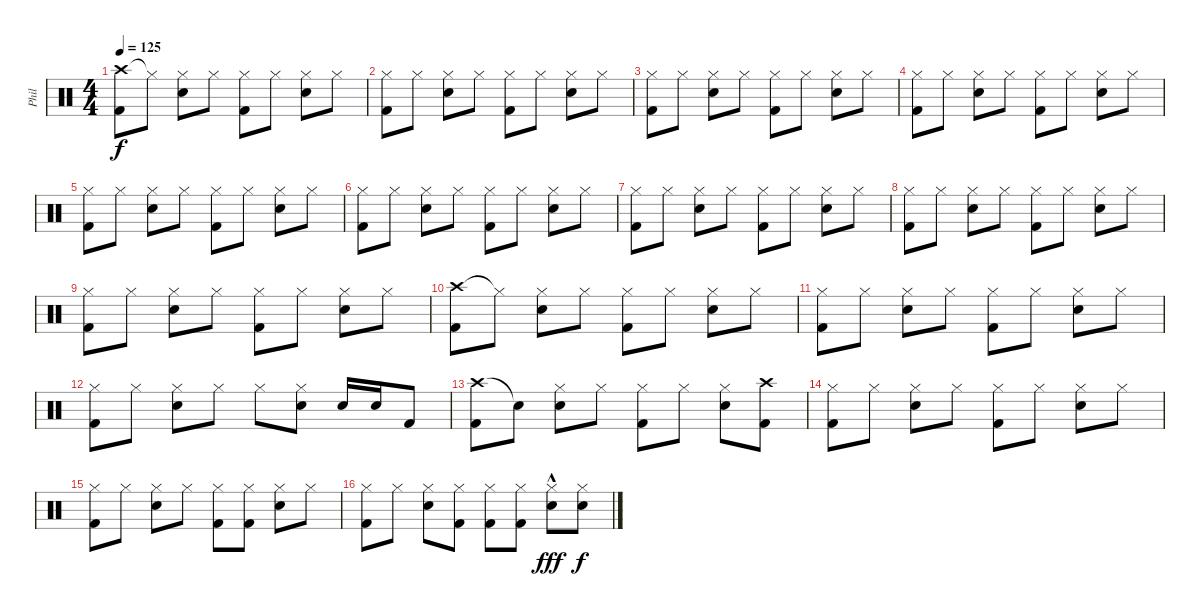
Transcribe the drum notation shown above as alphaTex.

\track ("Phil" "Phil") {instrument percussion}
\staff {score}
\articulation defaults
\ts (4 4)
\tempo 125
\clef neutral
\ks c
("Crash high (hit)" "Kick (hit) 2").8{dy f} "Hi-Hat (closed)"{t}.8 ("Hi-Hat (closed)" "Snare (hit) 2").8 "Hi-Hat (closed)".8 ("Hi-Hat (closed)" "Kick (hit) 2").8 "Hi-Hat (closed)".8 ("Hi-Hat (closed)" "Snare (hit) 2").8 "Hi-Hat (closed)".8 |
("Hi-Hat (closed)" "Kick (hit) 2").8 "Hi-Hat (closed)".8 ("Hi-Hat (closed)" "Snare (hit) 2").8 "Hi-Hat (closed)".8 ("Hi-Hat (closed)" "Kick (hit) 2").8 "Hi-Hat (closed)".8 ("Hi-Hat (closed)" "Snare (hit) 2").8 "Hi-Hat (closed)".8 |
("Hi-Hat (closed)" "Kick (hit) 2").8 "Hi-Hat (closed)".8 ("Hi-Hat (closed)" "Snare (hit) 2").8 "Hi-Hat (closed)".8 ("Hi-Hat (closed)" "Kick (hit) 2").8 "Hi-Hat (closed)".8 ("Hi-Hat (closed)" "Snare (hit) 2").8 "Hi-Hat (closed)".8 |
("Hi-Hat (closed)" "Kick (hit) 2").8 "Hi-Hat (closed)".8 ("Hi-Hat (closed)" "Snare (hit) 2").8 "Hi-Hat (closed)".8 ("Hi-Hat (closed)" "Kick (hit) 2").8 "Hi-Hat (closed)".8 ("Hi-Hat (closed)" "Snare (hit) 2").8 "Hi-Hat (closed)".8 |
("Hi-Hat (closed)" "Kick (hit) 2").8 "Hi-Hat (closed)".8 ("Hi-Hat (closed)" "Snare (hit) 2").8 "Hi-Hat (closed)".8 ("Hi-Hat (closed)" "Kick (hit) 2").8 "Hi-Hat (closed)".8 ("Hi-Hat (closed)" "Snare (hit) 2").8 "Hi-Hat (closed)".8 |
("Hi-Hat (closed)" "Kick (hit) 2").8 "Hi-Hat (closed)".8 ("Hi-Hat (closed)" "Snare (hit) 2").8 "Hi-Hat (closed)".8 ("Hi-Hat (closed)" "Kick (hit) 2").8 "Hi-Hat (closed)".8 ("Hi-Hat (closed)" "Snare (hit) 2").8 "Hi-Hat (closed)".8 |
("Hi-Hat (closed)" "Kick (hit) 2").8 "Hi-Hat (closed)".8 ("Hi-Hat (closed)" "Snare (hit) 2").8 "Hi-Hat (closed)".8 ("Hi-Hat (closed)" "Kick (hit) 2").8 "Hi-Hat (closed)".8 ("Hi-Hat (closed)" "Snare (hit) 2").8 "Hi-Hat (closed)".8 |
("Hi-Hat (closed)" "Kick (hit) 2").8 "Hi-Hat (closed)".8 ("Hi-Hat (closed)" "Snare (hit) 2").8 "Hi-Hat (closed)".8 ("Hi-Hat (closed)" "Kick (hit) 2").8 "Hi-Hat (closed)".8 ("Hi-Hat (closed)" "Snare (hit) 2").8 "Hi-Hat (closed)".8 |
("Hi-Hat (closed)" "Kick (hit) 2").8 "Hi-Hat (closed)".8 ("Hi-Hat (closed)" "Snare (hit) 2").8 "Hi-Hat (closed)".8 ("Hi-Hat (closed)" "Kick (hit) 2").8 "Hi-Hat (closed)".8 ("Hi-Hat (closed)" "Snare (hit) 2").8 "Hi-Hat (closed)".8 |
("Crash high (hit)" "Kick (hit) 2").8 "Hi-Hat (closed)"{t}.8 ("Hi-Hat (closed)" "Snare (hit) 2").8 "Hi-Hat (closed)".8 ("Hi-Hat (closed)" "Kick (hit) 2").8 "Hi-Hat (closed)".8 ("Hi-Hat (closed)" "Snare (hit) 2").8 "Hi-Hat (closed)".8 |
("Hi-Hat (closed)" "Kick (hit) 2").8 "Hi-Hat (closed)".8 ("Hi-Hat (closed)" "Snare (hit) 2").8 "Hi-Hat (closed)".8 ("Hi-Hat (closed)" "Kick (hit) 2").8 "Hi-Hat (closed)".8 ("Hi-Hat (closed)" "Snare (hit) 2").8 "Hi-Hat (closed)".8 |
("Hi-Hat (closed)" "Kick (hit) 2").8 "Hi-Hat (closed)".8 ("Hi-Hat (closed)" "Snare (hit) 2").8 "Hi-Hat (closed)".8 "Hi-Hat (closed)".8 ("Hi-Hat (closed)" "Snare (hit) 2").8 "Snare (hit) 2".16 "Snare (hit) 2".16 "Kick (hit) 2".8 |
("Crash high (hit)" "Kick (hit) 2").8 "Snare (hit)"{t}.8 ("Hi-Hat (closed)" "Snare (hit) 2").8 "Hi-Hat (closed)".8 ("Hi-Hat (closed)" "Kick (hit) 2").8 "Hi-Hat (closed)".8 ("Hi-Hat (closed)" "Snare (hit) 2").8 ("Crash high (hit)" "Kick (hit) 2").8 |
("Hi-Hat (closed)" "Kick (hit) 2").8 "Hi-Hat (closed)".8 ("Hi-Hat (closed)" "Snare (hit) 2").8 "Hi-Hat (closed)".8 ("Hi-Hat (closed)" "Kick (hit) 2").8 "Hi-Hat (closed)".8 ("Hi-Hat (closed)" "Snare (hit) 2").8 "Hi-Hat (closed)".8 |
("Hi-Hat (closed)" "Kick (hit) 2").8 "Hi-Hat (closed)".8 ("Hi-Hat (closed)" "Snare (hit) 2").8 "Hi-Hat (closed)".8 ("Hi-Hat (closed)" "Kick (hit) 2").8 ("Hi-Hat (closed)" "Kick (hit) 2").8 ("Hi-Hat (closed)" "Snare (hit) 2").8 "Hi-Hat (closed)".8 |
("Hi-Hat (closed)" "Kick (hit) 2").8 "Hi-Hat (closed)".8 ("Hi-Hat (closed)" "Snare (hit) 2").8 ("Hi-Hat (closed)" "Kick (hit) 2").8 ("Hi-Hat (closed)" "Kick (hit) 2").8 ("Hi-Hat (closed)" "Kick (hit) 2").8 ("Hi-Hat (closed)" "Snare (hit) 2"{hac}).8{dy fff} ("Hi-Hat (closed)" "Snare (hit) 2").8{dy f}
